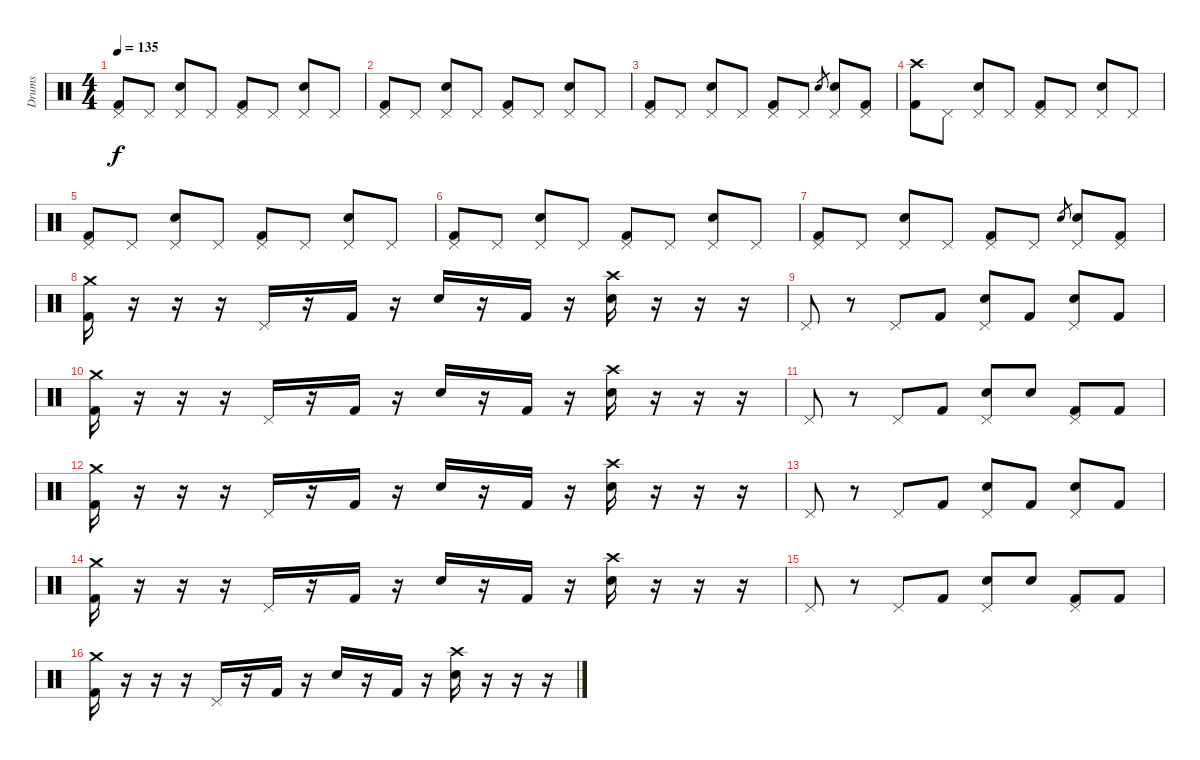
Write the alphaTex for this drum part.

\track ("Drums" "Drums") {instrument percussion}
\staff {score}
\articulation defaults
\ts (4 4)
\tempo 135
\clef neutral
\ks c
("Pedal Hi-Hat (hit)" "Kick (hit) 2").8{dy f} "Pedal Hi-Hat (hit)".8 ("Pedal Hi-Hat (hit)" "Snare (hit) 2").8 "Pedal Hi-Hat (hit)".8 ("Pedal Hi-Hat (hit)" "Kick (hit) 2").8 "Pedal Hi-Hat (hit)".8 ("Pedal Hi-Hat (hit)" "Snare (hit) 2").8 "Pedal Hi-Hat (hit)".8 |
("Pedal Hi-Hat (hit)" "Kick (hit) 2").8 "Pedal Hi-Hat (hit)".8 ("Pedal Hi-Hat (hit)" "Snare (hit) 2").8 "Pedal Hi-Hat (hit)".8 ("Pedal Hi-Hat (hit)" "Kick (hit) 2").8 "Pedal Hi-Hat (hit)".8 ("Pedal Hi-Hat (hit)" "Snare (hit) 2").8 "Pedal Hi-Hat (hit)".8 |
("Pedal Hi-Hat (hit)" "Kick (hit) 2").8 "Pedal Hi-Hat (hit)".8 ("Pedal Hi-Hat (hit)" "Snare (hit) 2").8 "Pedal Hi-Hat (hit)".8 ("Pedal Hi-Hat (hit)" "Kick (hit) 2").8 "Pedal Hi-Hat (hit)".8 "Snare (hit) 2".8{gr} ("Pedal Hi-Hat (hit)" "Snare (hit) 2").8 ("Pedal Hi-Hat (hit)" "Kick (hit) 2").8 |
("Crash high (hit)" "Kick (hit) 2").8 "Pedal Hi-Hat (hit)".8 ("Pedal Hi-Hat (hit)" "Snare (hit) 2").8 "Pedal Hi-Hat (hit)".8 ("Pedal Hi-Hat (hit)" "Kick (hit) 2").8 "Pedal Hi-Hat (hit)".8 ("Pedal Hi-Hat (hit)" "Snare (hit) 2").8 "Pedal Hi-Hat (hit)".8 |
("Pedal Hi-Hat (hit)" "Kick (hit) 2").8 "Pedal Hi-Hat (hit)".8 ("Pedal Hi-Hat (hit)" "Snare (hit) 2").8 "Pedal Hi-Hat (hit)".8 ("Pedal Hi-Hat (hit)" "Kick (hit) 2").8 "Pedal Hi-Hat (hit)".8 ("Pedal Hi-Hat (hit)" "Snare (hit) 2").8 "Pedal Hi-Hat (hit)".8 |
("Pedal Hi-Hat (hit)" "Kick (hit) 2").8 "Pedal Hi-Hat (hit)".8 ("Pedal Hi-Hat (hit)" "Snare (hit) 2").8 "Pedal Hi-Hat (hit)".8 ("Pedal Hi-Hat (hit)" "Kick (hit) 2").8 "Pedal Hi-Hat (hit)".8 ("Pedal Hi-Hat (hit)" "Snare (hit) 2").8 "Pedal Hi-Hat (hit)".8 |
("Pedal Hi-Hat (hit)" "Kick (hit) 2").8 "Pedal Hi-Hat (hit)".8 ("Pedal Hi-Hat (hit)" "Snare (hit) 2").8 "Pedal Hi-Hat (hit)".8 ("Pedal Hi-Hat (hit)" "Kick (hit) 2").8 "Pedal Hi-Hat (hit)".8 "Snare (hit) 2".8{gr} ("Pedal Hi-Hat (hit)" "Snare (hit) 2").8 ("Pedal Hi-Hat (hit)" "Kick (hit) 2").8 |
("Crash medium (hit)" "Kick (hit) 2").16 r.16 r.16 r.16 "Pedal Hi-Hat (hit)".16 r.16 "Kick (hit) 2".16 r.16 "Snare (hit) 2".16 r.16 "Kick (hit) 2".16 r.16 ("Crash high (hit)" "Snare (hit) 2").16 r.16 r.16 r.16 |
"Pedal Hi-Hat (hit)".8 r.8 "Pedal Hi-Hat (hit)".8 "Kick (hit) 2".8 ("Pedal Hi-Hat (hit)" "Snare (hit) 2").8 "Kick (hit) 2".8 ("Pedal Hi-Hat (hit)" "Snare (hit) 2").8 "Kick (hit) 2".8 |
("Crash medium (hit)" "Kick (hit) 2").16 r.16 r.16 r.16 "Pedal Hi-Hat (hit)".16 r.16 "Kick (hit) 2".16 r.16 "Snare (hit) 2".16 r.16 "Kick (hit) 2".16 r.16 ("Crash high (hit)" "Snare (hit) 2").16 r.16 r.16 r.16 |
"Pedal Hi-Hat (hit)".8 r.8 "Pedal Hi-Hat (hit)".8 "Kick (hit) 2".8 ("Pedal Hi-Hat (hit)" "Snare (hit) 2").8 "Snare (hit) 2".8 ("Pedal Hi-Hat (hit)" "Kick (hit) 2").8 "Kick (hit) 2".8 |
("Crash medium (hit)" "Kick (hit) 2").16 r.16 r.16 r.16 "Pedal Hi-Hat (hit)".16 r.16 "Kick (hit) 2".16 r.16 "Snare (hit) 2".16 r.16 "Kick (hit) 2".16 r.16 ("Crash high (hit)" "Snare (hit) 2").16 r.16 r.16 r.16 |
"Pedal Hi-Hat (hit)".8 r.8 "Pedal Hi-Hat (hit)".8 "Kick (hit) 2".8 ("Pedal Hi-Hat (hit)" "Snare (hit) 2").8 "Kick (hit) 2".8 ("Pedal Hi-Hat (hit)" "Snare (hit) 2").8 "Kick (hit) 2".8 |
("Crash medium (hit)" "Kick (hit) 2").16 r.16 r.16 r.16 "Pedal Hi-Hat (hit)".16 r.16 "Kick (hit) 2".16 r.16 "Snare (hit) 2".16 r.16 "Kick (hit) 2".16 r.16 ("Crash high (hit)" "Snare (hit) 2").16 r.16 r.16 r.16 |
"Pedal Hi-Hat (hit)".8 r.8 "Pedal Hi-Hat (hit)".8 "Kick (hit) 2".8 ("Pedal Hi-Hat (hit)" "Snare (hit) 2").8 "Snare (hit) 2".8 ("Pedal Hi-Hat (hit)" "Kick (hit) 2").8 "Kick (hit) 2".8 |
("Crash medium (hit)" "Kick (hit) 2").16 r.16 r.16 r.16 "Pedal Hi-Hat (hit)".16 r.16 "Kick (hit) 2".16 r.16 "Snare (hit) 2".16 r.16 "Kick (hit) 2".16 r.16 ("Crash high (hit)" "Snare (hit) 2").16 r.16 r.16 r.16
